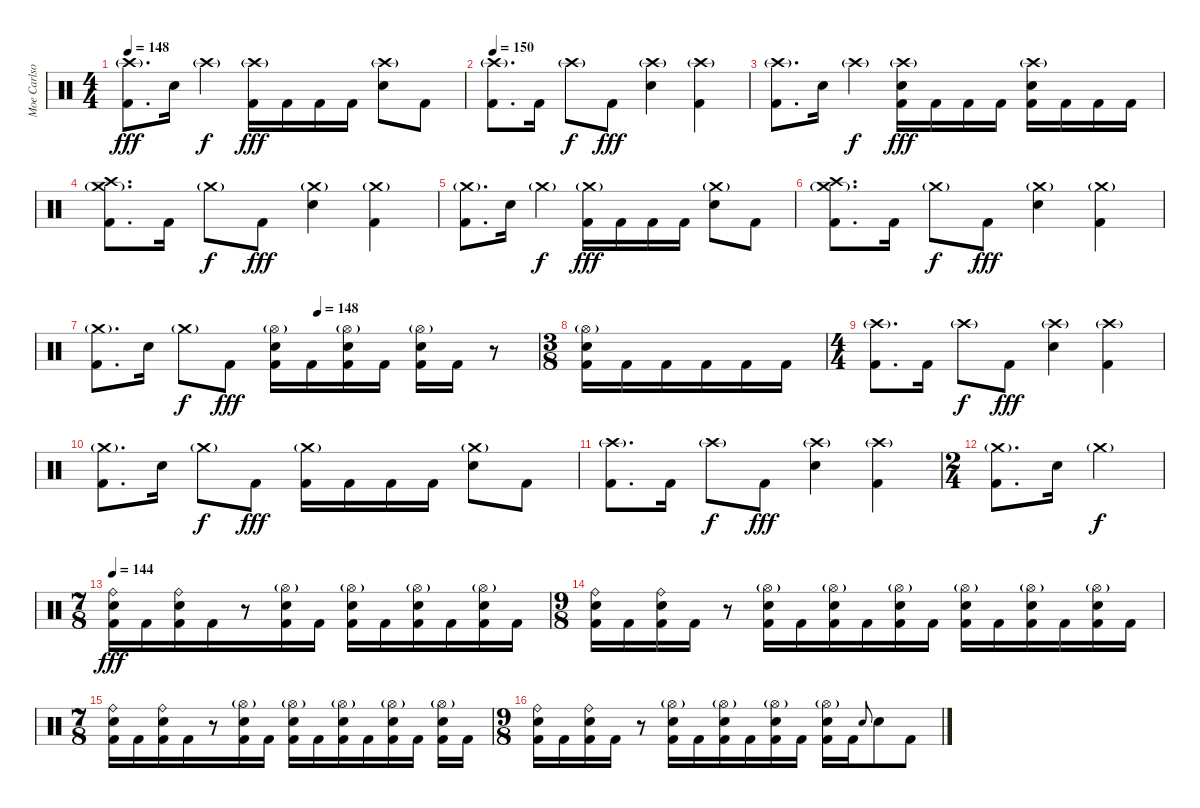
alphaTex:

\track ("Moe Carlson" "Moe Carlso") {instrument percussion}
\staff {score}
\articulation defaults
\ts (4 4)
\tempo 148
\clef neutral
\ks c
("Crash high (hit)"{g} "Kick (hit) 2").8{d dy fff} "Electric Snare (hit)".16 "Crash high (hit)"{g}.4{dy f} ("Crash high (hit)"{g} "Kick (hit) 2").16{dy fff} "Kick (hit) 2".16 "Kick (hit) 2".16 "Kick (hit) 2".16 ("Crash high (hit)"{g} "Electric Snare (hit)").8 "Kick (hit) 2".8 |
\tempo 150
("Crash high (hit)"{g} "Kick (hit) 2").8{d} "Kick (hit) 2".16 "Crash high (hit)"{g}.8{dy f} "Kick (hit) 2".8{dy fff} ("Crash high (hit)"{g} "Electric Snare (hit)").4 ("Crash high (hit)"{g} "Kick (hit) 2").4 |
("Crash high (hit)"{g} "Kick (hit) 2").8{d} "Electric Snare (hit)".16 "Crash high (hit)"{g}.4{dy f} ("Crash high (hit)"{g} "Electric Snare (hit)" "Kick (hit) 2").16{dy fff} "Kick (hit) 2".16 "Kick (hit) 2".16 "Kick (hit) 2".16 ("Crash high (hit)"{g} "Electric Snare (hit)" "Kick (hit) 2").16 "Kick (hit) 2".16 "Kick (hit) 2".16 "Kick (hit) 2".16 |
("Crash medium (hit)"{g} "Crash high (hit)" "Kick (hit) 2").8{d} "Kick (hit) 2".16 "Crash medium (hit)"{g}.8{dy f} "Kick (hit) 2".8{dy fff} ("Crash medium (hit)"{g} "Electric Snare (hit)").4 ("Crash medium (hit)"{g} "Kick (hit) 2").4 |
("Crash medium (hit)"{g} "Kick (hit) 2").8{d} "Electric Snare (hit)".16 "Crash medium (hit)"{g}.4{dy f} ("Crash medium (hit)"{g} "Kick (hit) 2").16{dy fff} "Kick (hit) 2".16 "Kick (hit) 2".16 "Kick (hit) 2".16 ("Crash medium (hit)"{g} "Electric Snare (hit)").8 "Kick (hit) 2".8 |
("Crash medium (hit)"{g} "Crash high (hit)" "Kick (hit) 2").8{d} "Kick (hit) 2".16 "Crash medium (hit)"{g}.8{dy f} "Kick (hit) 2".8{dy fff} ("Crash medium (hit)"{g} "Electric Snare (hit)").4 ("Crash medium (hit)"{g} "Kick (hit) 2").4 |
\tempo (148 0.5)
("Crash medium (hit)"{g} "Kick (hit) 2").8{d} "Electric Snare (hit)".16 "Crash medium (hit)"{g}.8{dy f} "Kick (hit) 2".8{dy fff} ("Hi-Hat (open)"{g} "Electric Snare (hit)" "Kick (hit) 2").16 "Kick (hit) 2".16 ("Hi-Hat (open)"{g} "Electric Snare (hit)" "Kick (hit) 2").16 "Kick (hit) 2".16 ("Hi-Hat (open)"{g} "Electric Snare (hit)" "Kick (hit) 2").16 "Kick (hit) 2".16 r.8 |
\ts (3 8)
("Hi-Hat (open)"{g} "Electric Snare (hit)" "Kick (hit) 2").16 "Kick (hit) 2".16 "Kick (hit) 2".16 "Kick (hit) 2".16 "Kick (hit) 2".16 "Kick (hit) 2".16 |
\ts (4 4)
("Crash high (hit)"{g} "Kick (hit) 2").8{d} "Kick (hit) 2".16 "Crash high (hit)"{g}.8{dy f} "Kick (hit) 2".8{dy fff} ("Crash high (hit)"{g} "Electric Snare (hit)").4 ("Crash high (hit)"{g} "Kick (hit) 2").4 |
("Crash medium (hit)"{g} "Kick (hit) 2").8{d} "Electric Snare (hit)".16 "Crash medium (hit)"{g}.8{dy f} "Kick (hit) 2".8{dy fff} ("Crash medium (hit)"{g} "Kick (hit) 2").16 "Kick (hit) 2".16 "Kick (hit) 2".16 "Kick (hit) 2".16 ("Crash medium (hit)"{g} "Electric Snare (hit)").8 "Kick (hit) 2".8 |
("Crash high (hit)"{g} "Kick (hit) 2").8{d} "Kick (hit) 2".16 "Crash high (hit)"{g}.8{dy f} "Kick (hit) 2".8{dy fff} ("Crash high (hit)"{g} "Electric Snare (hit)").4 ("Crash high (hit)"{g} "Kick (hit) 2").4 |
\ts (2 4)
("Crash medium (hit)"{g} "Kick (hit) 2").8{d} "Electric Snare (hit)".16 "Crash medium (hit)"{g}.4{dy f} |
\ts (7 8)
\tempo 144
("Ride (bell)" "Electric Snare (hit)" "Kick (hit) 2").16{dy fff} "Kick (hit) 2".16 ("Ride (bell)" "Electric Snare (hit)" "Kick (hit) 2").16 "Kick (hit) 2".16 r.8 ("Hi-Hat (open)"{g} "Electric Snare (hit)" "Kick (hit) 2").16 "Kick (hit) 2".16 ("Hi-Hat (open)"{g} "Electric Snare (hit)" "Kick (hit) 2").16 "Kick (hit) 2".16 ("Hi-Hat (open)"{g} "Electric Snare (hit)" "Kick (hit) 2").16 "Kick (hit) 2".16 ("Hi-Hat (open)"{g} "Electric Snare (hit)" "Kick (hit) 2").16 "Kick (hit) 2".16 |
\ts (9 8)
("Ride (bell)" "Electric Snare (hit)" "Kick (hit) 2").16 "Kick (hit) 2".16 ("Ride (bell)" "Electric Snare (hit)" "Kick (hit) 2").16 "Kick (hit) 2".16 r.8 ("Hi-Hat (open)"{g} "Electric Snare (hit)" "Kick (hit) 2").16 "Kick (hit) 2".16 ("Hi-Hat (open)"{g} "Electric Snare (hit)" "Kick (hit) 2").16 "Kick (hit) 2".16 ("Hi-Hat (open)"{g} "Electric Snare (hit)" "Kick (hit) 2").16 "Kick (hit) 2".16 ("Hi-Hat (open)"{g} "Electric Snare (hit)" "Kick (hit) 2").16 "Kick (hit) 2".16 ("Hi-Hat (open)"{g} "Electric Snare (hit)" "Kick (hit) 2").16 "Kick (hit) 2".16 ("Hi-Hat (open)"{g} "Electric Snare (hit)" "Kick (hit) 2").16 "Kick (hit) 2".16 |
\ts (7 8)
("Ride (bell)" "Electric Snare (hit)" "Kick (hit) 2").16 "Kick (hit) 2".16 ("Ride (bell)" "Electric Snare (hit)" "Kick (hit) 2").16 "Kick (hit) 2".16 r.8 ("Hi-Hat (open)"{g} "Electric Snare (hit)" "Kick (hit) 2").16 "Kick (hit) 2".16 ("Hi-Hat (open)"{g} "Electric Snare (hit)" "Kick (hit) 2").16 "Kick (hit) 2".16 ("Hi-Hat (open)"{g} "Electric Snare (hit)" "Kick (hit) 2").16 "Kick (hit) 2".16 ("Hi-Hat (open)"{g} "Electric Snare (hit)" "Kick (hit) 2").16 "Kick (hit) 2".16 ("Hi-Hat (open)"{g} "Electric Snare (hit)" "Kick (hit) 2").16 "Kick (hit) 2".16 |
\ts (9 8)
("Ride (bell)" "Electric Snare (hit)" "Kick (hit) 2").16 "Kick (hit) 2".16 ("Ride (bell)" "Electric Snare (hit)" "Kick (hit) 2").16 "Kick (hit) 2".16 r.8 ("Hi-Hat (open)"{g} "Electric Snare (hit)" "Kick (hit) 2").16 "Kick (hit) 2".16 ("Hi-Hat (open)"{g} "Electric Snare (hit)" "Kick (hit) 2").16 "Kick (hit) 2".16 ("Hi-Hat (open)"{g} "Electric Snare (hit)" "Kick (hit) 2").16 "Kick (hit) 2".16 ("Hi-Hat (open)"{g} "Electric Snare (hit)" "Kick (hit) 2").16 "Kick (hit) 2".16 "Electric Snare (hit)".8{gr onbeat} "Electric Snare (hit)".8 "Kick (hit) 2".8
